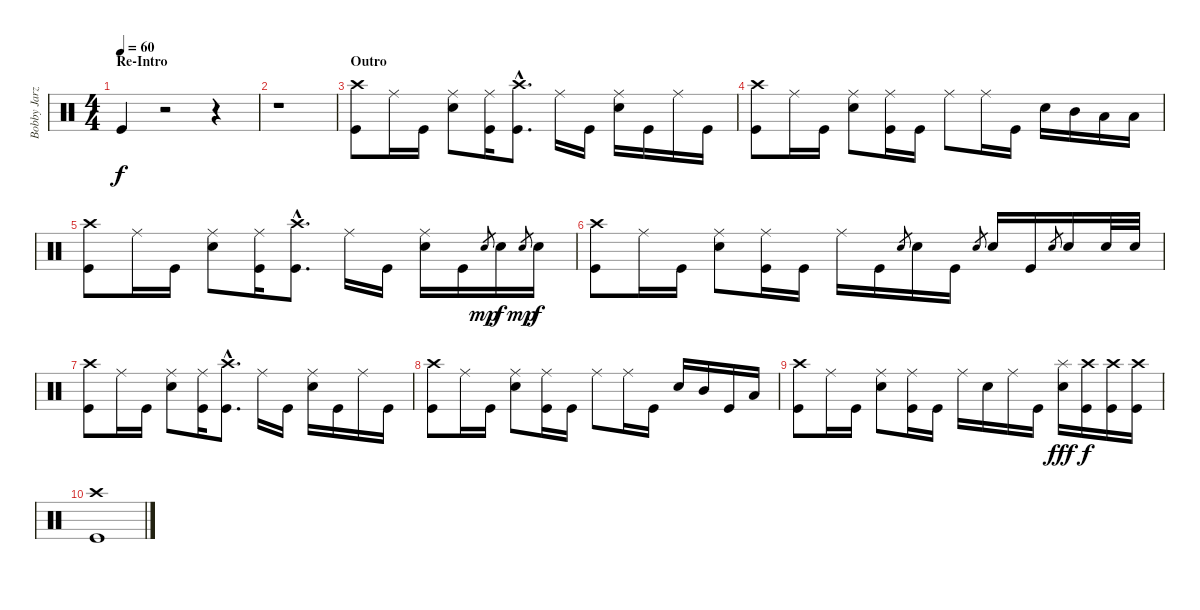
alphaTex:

\track ("Bobby Jarzombek" "Bobby Jarz") {instrument percussion}
\staff {score}
\articulation defaults
\ts (4 4)
\section ("" "Re-Intro")
\tempo 60
\clef neutral
\ks c "Kick (hit)".4{dy f}
r.2 r.4 |
r.1 |
\section ("" "Outro")
("Crash high (hit)" "Kick (hit)").8 "Ride (middle)".16 "Kick (hit)".16 ("Ride (middle)" "Electric Snare (hit)").8 ("Ride (middle)" "Kick (hit)").16 ("Crash high (hit)"{hac} "Kick (hit)"{hac}).8{d} "Ride (middle)".16 "Kick (hit)".16 ("Ride (middle)" "Electric Snare (hit)").16 "Kick (hit)".16 "Ride (middle)".16 "Kick (hit)".16 |
("Crash high (hit)" "Kick (hit)").8 "Ride (middle)".16 "Kick (hit)".16 ("Ride (middle)" "Electric Snare (hit)").8 ("Ride (middle)" "Kick (hit)").16 "Kick (hit)".16 "Ride (middle)".8 "Ride (middle)".16 "Kick (hit)".16 "Electric Snare (hit)".16 "Mid Tom (hit)".16 "Low Tom (hit)".16 "Low Tom (hit)".16 |
("Crash high (hit)" "Kick (hit)").8 "Ride (middle)".16 "Kick (hit)".16 ("Ride (middle)" "Electric Snare (hit)").8 ("Ride (middle)" "Kick (hit)").16 ("Crash high (hit)"{hac} "Kick (hit)"{hac}).8{d} "Ride (middle)".16 "Kick (hit)".16 ("Ride (middle)" "Electric Snare (hit)").16 "Kick (hit)".16 "Electric Snare (hit)".8{gr dy mp} "Electric Snare (hit)".16{dy f} "Electric Snare (hit)".8{gr dy mp} "Electric Snare (hit)".16{dy f} |
("Crash high (hit)" "Kick (hit)").8 "Ride (middle)".16 "Kick (hit)".16 ("Ride (middle)" "Electric Snare (hit)").8 ("Ride (middle)" "Kick (hit)").16 "Kick (hit)".16 "Ride (middle)".16 "Kick (hit)".16 "Electric Snare (hit)".8{gr} "Electric Snare (hit)".16 "Kick (hit)".16 "Electric Snare (hit)".8{gr} "Electric Snare (hit)".16 "Kick (hit)".16 "Electric Snare (hit)".8{gr} "Electric Snare (hit)".16 "Electric Snare (hit)".32 "Electric Snare (hit)".32 |
("Crash high (hit)" "Kick (hit)").8 "Ride (middle)".16 "Kick (hit)".16 ("Ride (middle)" "Electric Snare (hit)").8 ("Ride (middle)" "Kick (hit)").16 ("Crash high (hit)"{hac} "Kick (hit)"{hac}).8{d} "Ride (middle)".16 "Kick (hit)".16 ("Ride (middle)" "Electric Snare (hit)").16 "Kick (hit)".16 "Ride (middle)".16 "Kick (hit)".16 |
("Crash high (hit)" "Kick (hit)").8 "Ride (middle)".16 "Kick (hit)".16 ("Ride (middle)" "Electric Snare (hit)").8 ("Ride (middle)" "Kick (hit)").16 "Kick (hit)".16 "Ride (middle)".8 "Ride (middle)".16 "Kick (hit)".16 "Electric Snare (hit)".16 "Mid Tom (hit)".16 "Kick (hit)".16 "Low Tom (hit)".16 |
("Crash high (hit)" "Kick (hit)").8 "Ride (middle)".16 "Kick (hit)".16 ("Ride (middle)" "Electric Snare (hit)").8 ("Ride (middle)" "Kick (hit)").16 "Kick (hit)".16 "Ride (middle)".16 "Electric Snare (hit)".16 "Ride (middle)".16 "Kick (hit)".16 ("Splash (hit)" "Electric Snare (hit)").16{dy fff} ("Crash high (hit)" "Kick (hit)").16{dy f} ("Crash high (hit)" "Kick (hit)").16 ("Crash high (hit)" "Kick (hit)").16 |
("Crash high (hit)" "Kick (hit)").1
